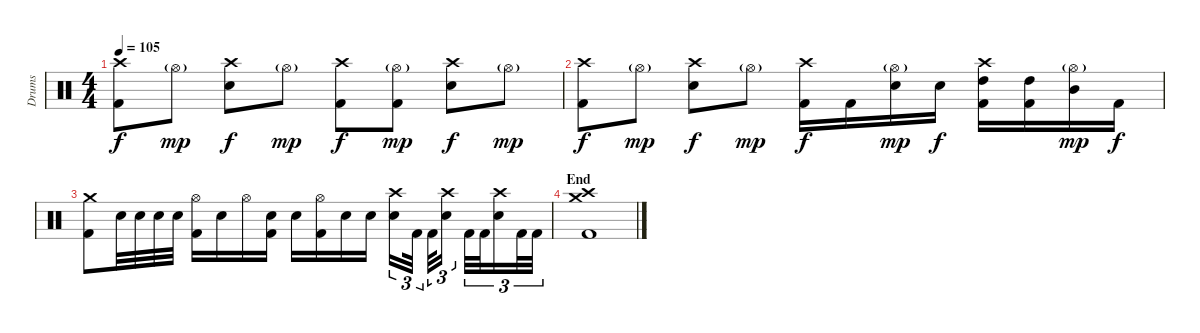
\track ("Drums" "Drums") {instrument percussion}
\staff {score}
\articulation defaults
\ts (4 4)
\tempo 105
\clef neutral
\ks c
("Crash high (hit)" "Kick (hit) 2").8{dy f} "Hi-Hat (open)"{g}.8{dy mp} ("Crash high (hit)" "Electric Snare (hit)").8{dy f} "Hi-Hat (open)"{g}.8{dy mp} ("Crash high (hit)" "Kick (hit) 2").8{dy f} ("Hi-Hat (open)"{g} "Kick (hit) 2").8{dy mp} ("Crash high (hit)" "Electric Snare (hit)").8{dy f} "Hi-Hat (open)"{g}.8{dy mp} |
("Crash high (hit)" "Kick (hit) 2").8{dy f} "Hi-Hat (open)"{g}.8{dy mp} ("Crash high (hit)" "Electric Snare (hit)").8{dy f} "Hi-Hat (open)"{g}.8{dy mp} ("Crash high (hit)" "Kick (hit) 2").16{dy f} "Kick (hit) 2".16 ("Hi-Hat (open)"{g} "Electric Snare (hit)").16{dy mp} "Electric Snare (hit)".16{dy f} ("Crash high (hit)" "High Tom (hit)" "Kick (hit) 2").16 ("High Tom (hit)" "Kick (hit) 2").16 ("Hi-Hat (open)"{g} "Mid Tom (hit)").16{dy mp} "Kick (hit) 2".16{dy f} |
("Crash medium (hit)" "Kick (hit) 2").8 "Electric Snare (hit)".32 "Electric Snare (hit)".32 "Electric Snare (hit)".32 "Electric Snare (hit)".32 ("Hi-Hat (open)" "Kick (hit) 2").16 "Electric Snare (hit)".16 "Hi-Hat (open)".16 ("Electric Snare (hit)" "Kick (hit) 2").16 "Electric Snare (hit)".16 ("Hi-Hat (open)" "Kick (hit) 2").16 "Electric Snare (hit)".16 "Electric Snare (hit)".16 ("Crash high (hit)" "Electric Snare (hit)").16{tu (3 2)} "Kick (hit) 2".32{tu (3 2)} "Kick (hit) 2".32{tu (3 2)} ("Crash high (hit)" "Electric Snare (hit)").16{tu (3 2)} "Kick (hit) 2".32{tu (3 2)} "Kick (hit) 2".32{tu (3 2)} ("Crash high (hit)" "Electric Snare (hit)").16{tu (3 2)} "Kick (hit) 2".32{tu (3 2)} "Kick (hit) 2".32{tu (3 2)} |
\section ("" "End")
("Crash medium (hit)" "Crash high (hit)" "Kick (hit) 2").1
